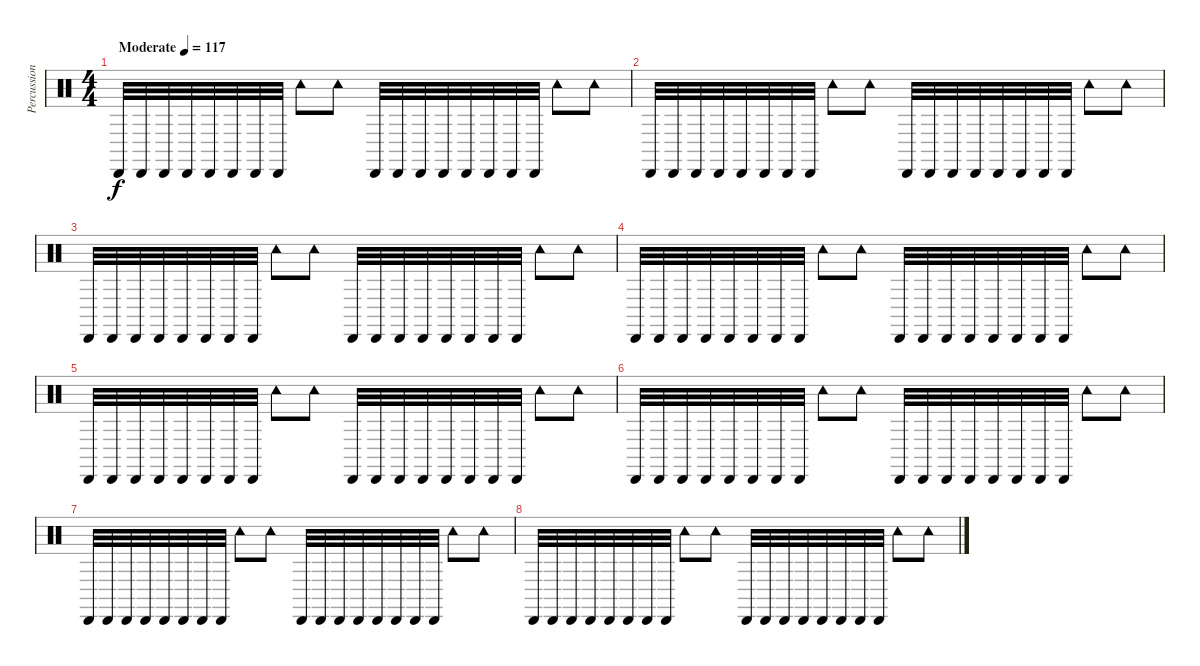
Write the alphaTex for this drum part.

\track ("Percussion" "Percussion") {instrument percussion}
\staff {score}
\articulation defaults
\ts (4 4)
\tempo (117 "Moderate")
\clef neutral
\ks c "Cabasa (hit)".32{dy f} "Cabasa (hit)".32 "Cabasa (hit)".32 "Cabasa (hit)".32 "Cabasa (hit)".32 "Cabasa (hit)".32 "Cabasa (hit)".32 "Cabasa (hit)".32 "Tambourine (hit)".8 "Tambourine (hit)".8 "Cabasa (hit)".32 "Cabasa (hit)".32 "Cabasa (hit)".32 "Cabasa (hit)".32 "Cabasa (hit)".32 "Cabasa (hit)".32 "Cabasa (hit)".32 "Cabasa (hit)".32 "Tambourine (hit)".8 "Tambourine (hit)".8
|
"Cabasa (hit)".32 "Cabasa (hit)".32 "Cabasa (hit)".32 "Cabasa (hit)".32 "Cabasa (hit)".32 "Cabasa (hit)".32 "Cabasa (hit)".32 "Cabasa (hit)".32 "Tambourine (hit)".8 "Tambourine (hit)".8 "Cabasa (hit)".32 "Cabasa (hit)".32 "Cabasa (hit)".32 "Cabasa (hit)".32 "Cabasa (hit)".32 "Cabasa (hit)".32 "Cabasa (hit)".32 "Cabasa (hit)".32 "Tambourine (hit)".8 "Tambourine (hit)".8 |
"Cabasa (hit)".32 "Cabasa (hit)".32 "Cabasa (hit)".32 "Cabasa (hit)".32 "Cabasa (hit)".32 "Cabasa (hit)".32 "Cabasa (hit)".32 "Cabasa (hit)".32 "Tambourine (hit)".8 "Tambourine (hit)".8 "Cabasa (hit)".32 "Cabasa (hit)".32 "Cabasa (hit)".32 "Cabasa (hit)".32 "Cabasa (hit)".32 "Cabasa (hit)".32 "Cabasa (hit)".32 "Cabasa (hit)".32 "Tambourine (hit)".8 "Tambourine (hit)".8 |
"Cabasa (hit)".32 "Cabasa (hit)".32 "Cabasa (hit)".32 "Cabasa (hit)".32 "Cabasa (hit)".32 "Cabasa (hit)".32 "Cabasa (hit)".32 "Cabasa (hit)".32 "Tambourine (hit)".8 "Tambourine (hit)".8 "Cabasa (hit)".32 "Cabasa (hit)".32 "Cabasa (hit)".32 "Cabasa (hit)".32 "Cabasa (hit)".32 "Cabasa (hit)".32 "Cabasa (hit)".32 "Cabasa (hit)".32 "Tambourine (hit)".8 "Tambourine (hit)".8 |
"Cabasa (hit)".32 "Cabasa (hit)".32 "Cabasa (hit)".32 "Cabasa (hit)".32 "Cabasa (hit)".32 "Cabasa (hit)".32 "Cabasa (hit)".32 "Cabasa (hit)".32 "Tambourine (hit)".8 "Tambourine (hit)".8 "Cabasa (hit)".32 "Cabasa (hit)".32 "Cabasa (hit)".32 "Cabasa (hit)".32 "Cabasa (hit)".32 "Cabasa (hit)".32 "Cabasa (hit)".32 "Cabasa (hit)".32 "Tambourine (hit)".8 "Tambourine (hit)".8 |
"Cabasa (hit)".32 "Cabasa (hit)".32 "Cabasa (hit)".32 "Cabasa (hit)".32 "Cabasa (hit)".32 "Cabasa (hit)".32 "Cabasa (hit)".32 "Cabasa (hit)".32 "Tambourine (hit)".8 "Tambourine (hit)".8 "Cabasa (hit)".32 "Cabasa (hit)".32 "Cabasa (hit)".32 "Cabasa (hit)".32 "Cabasa (hit)".32 "Cabasa (hit)".32 "Cabasa (hit)".32 "Cabasa (hit)".32 "Tambourine (hit)".8 "Tambourine (hit)".8 |
"Cabasa (hit)".32 "Cabasa (hit)".32 "Cabasa (hit)".32 "Cabasa (hit)".32 "Cabasa (hit)".32 "Cabasa (hit)".32 "Cabasa (hit)".32 "Cabasa (hit)".32 "Tambourine (hit)".8 "Tambourine (hit)".8 "Cabasa (hit)".32 "Cabasa (hit)".32 "Cabasa (hit)".32 "Cabasa (hit)".32 "Cabasa (hit)".32 "Cabasa (hit)".32 "Cabasa (hit)".32 "Cabasa (hit)".32 "Tambourine (hit)".8 "Tambourine (hit)".8 |
"Cabasa (hit)".32 "Cabasa (hit)".32 "Cabasa (hit)".32 "Cabasa (hit)".32 "Cabasa (hit)".32 "Cabasa (hit)".32 "Cabasa (hit)".32 "Cabasa (hit)".32 "Tambourine (hit)".8 "Tambourine (hit)".8 "Cabasa (hit)".32 "Cabasa (hit)".32 "Cabasa (hit)".32 "Cabasa (hit)".32 "Cabasa (hit)".32 "Cabasa (hit)".32 "Cabasa (hit)".32 "Cabasa (hit)".32 "Tambourine (hit)".8 "Tambourine (hit)".8
